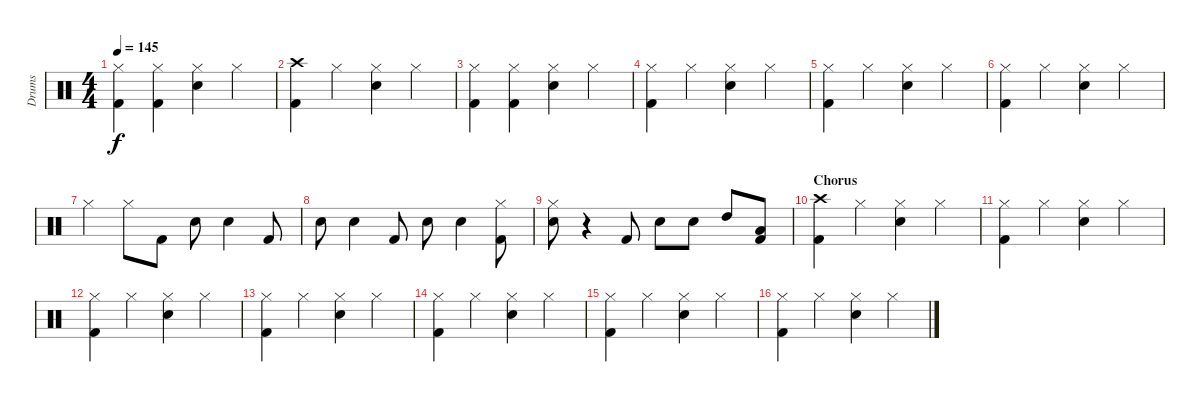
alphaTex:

\track ("Drums" "Drums") {instrument percussion}
\staff {score}
\articulation defaults
\ts (4 4)
\tempo 145
\clef neutral
\ks c
("Hi-Hat (closed)" "Kick (hit) 2").4{dy f} ("Hi-Hat (closed)" "Kick (hit) 2").4 ("Hi-Hat (closed)" "Electric Snare (hit)").4 "Hi-Hat (closed)".4 |
("Crash high (hit)" "Kick (hit) 2").4 "Hi-Hat (closed)".4 ("Hi-Hat (closed)" "Electric Snare (hit)").4 "Hi-Hat (closed)".4 |
("Hi-Hat (closed)" "Kick (hit) 2").4 ("Hi-Hat (closed)" "Kick (hit) 2").4 ("Hi-Hat (closed)" "Electric Snare (hit)").4 "Hi-Hat (closed)".4 |
("Hi-Hat (closed)" "Kick (hit) 2").4 "Hi-Hat (closed)".4 ("Hi-Hat (closed)" "Electric Snare (hit)").4 "Hi-Hat (closed)".4 |
("Hi-Hat (closed)" "Kick (hit) 2").4 "Hi-Hat (closed)".4 ("Hi-Hat (closed)" "Electric Snare (hit)").4 "Hi-Hat (closed)".4 |
("Hi-Hat (closed)" "Kick (hit) 2").4 "Hi-Hat (closed)".4 ("Hi-Hat (closed)" "Electric Snare (hit)").4 "Hi-Hat (closed)".4 |
"Hi-Hat (closed)".4 "Hi-Hat (closed)".8 "Kick (hit) 2".8 "Electric Snare (hit)".8 "Electric Snare (hit)".4 "Kick (hit) 2".8 |
"Electric Snare (hit)".8 "Electric Snare (hit)".4 "Kick (hit) 2".8 "Electric Snare (hit)".8 "Electric Snare (hit)".4 ("Hi-Hat (closed)" "Kick (hit) 2").8 |
("Hi-Hat (closed)" "Electric Snare (hit)").8 r.4 "Kick (hit) 2".8 "Electric Snare (hit)".8 "Electric Snare (hit)".8 "High Tom (hit)".8 ("Low Tom (hit)" "Kick (hit) 2").8 |
\section ("" "Chorus")
("Crash high (hit)" "Kick (hit) 2").4 "Hi-Hat (closed)".4 ("Hi-Hat (closed)" "Electric Snare (hit)").4 "Hi-Hat (closed)".4 |
("Hi-Hat (closed)" "Kick (hit) 2").4 "Hi-Hat (closed)".4 ("Hi-Hat (closed)" "Electric Snare (hit)").4 "Hi-Hat (closed)".4 |
("Hi-Hat (closed)" "Kick (hit) 2").4 "Hi-Hat (closed)".4 ("Hi-Hat (closed)" "Electric Snare (hit)").4 "Hi-Hat (closed)".4 |
("Hi-Hat (closed)" "Kick (hit) 2").4 "Hi-Hat (closed)".4 ("Hi-Hat (closed)" "Electric Snare (hit)").4 "Hi-Hat (closed)".4 |
("Hi-Hat (closed)" "Kick (hit) 2").4 "Hi-Hat (closed)".4 ("Hi-Hat (closed)" "Electric Snare (hit)").4 "Hi-Hat (closed)".4 |
("Hi-Hat (closed)" "Kick (hit) 2").4 "Hi-Hat (closed)".4 ("Hi-Hat (closed)" "Electric Snare (hit)").4 "Hi-Hat (closed)".4 |
("Hi-Hat (closed)" "Kick (hit) 2").4 "Hi-Hat (closed)".4 ("Hi-Hat (closed)" "Electric Snare (hit)").4 "Hi-Hat (closed)".4
